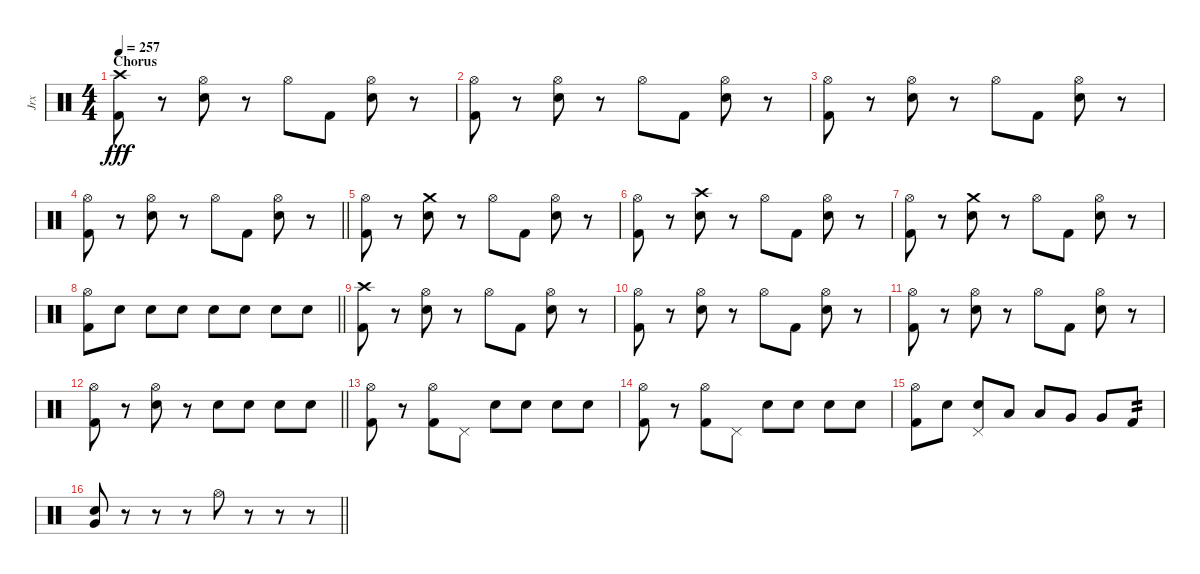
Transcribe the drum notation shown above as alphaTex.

\track ("Jrx" "Jrx") {instrument percussion}
\staff {score}
\articulation defaults
\ts (4 4)
\section ("" "Chorus")
\tempo 257
\clef neutral
\ks c
("Kick (hit) 2" "Crash high (hit)").8{dy fff} r.8 ("Hi-Hat (open)" "Snare (hit) 2").8 r.8 "Hi-Hat (open)".8 "Kick (hit) 2".8 ("Hi-Hat (open)" "Snare (hit) 2").8 r.8 |
("Hi-Hat (open)" "Kick (hit) 2").8 r.8 ("Hi-Hat (open)" "Snare (hit) 2").8 r.8 "Hi-Hat (open)".8 "Kick (hit) 2".8 ("Hi-Hat (open)" "Snare (hit) 2").8 r.8 |
("Hi-Hat (open)" "Kick (hit) 2").8 r.8 ("Hi-Hat (open)" "Snare (hit) 2").8 r.8 "Hi-Hat (open)".8 "Kick (hit) 2".8 ("Hi-Hat (open)" "Snare (hit) 2").8 r.8 |
\barLineRight lightlight
("Hi-Hat (open)" "Kick (hit) 2").8 r.8 ("Hi-Hat (open)" "Snare (hit) 2").8 r.8 "Hi-Hat (open)".8 "Kick (hit) 2".8 ("Hi-Hat (open)" "Snare (hit) 2").8 r.8 |
("Hi-Hat (open)" "Kick (hit) 2").8 r.8 ("Snare (hit) 2" "Crash medium (hit)").8 r.8 "Hi-Hat (open)".8 "Kick (hit) 2".8 ("Hi-Hat (open)" "Snare (hit) 2").8 r.8 |
("Hi-Hat (open)" "Kick (hit) 2").8 r.8 ("Snare (hit) 2" "Crash high (hit)").8 r.8 "Hi-Hat (open)".8 "Kick (hit) 2".8 ("Hi-Hat (open)" "Snare (hit) 2").8 r.8 |
("Hi-Hat (open)" "Kick (hit) 2").8 r.8 ("Snare (hit) 2" "Crash medium (hit)").8 r.8 "Hi-Hat (open)".8 "Kick (hit) 2".8 ("Hi-Hat (open)" "Snare (hit) 2").8 r.8 |
\barLineRight lightlight
("Hi-Hat (open)" "Kick (hit) 2").8 "Snare (hit) 2".8 "Snare (hit) 2".8 "Snare (hit) 2".8 "Snare (hit) 2".8 "Snare (hit) 2".8 "Snare (hit) 2".8 "Snare (hit) 2".8 |
("Kick (hit) 2" "Crash high (hit)").8 r.8 ("Hi-Hat (open)" "Snare (hit) 2").8 r.8 "Hi-Hat (open)".8 "Kick (hit) 2".8 ("Hi-Hat (open)" "Snare (hit) 2").8 r.8 |
("Hi-Hat (open)" "Kick (hit) 2").8 r.8 ("Hi-Hat (open)" "Snare (hit) 2").8 r.8 "Hi-Hat (open)".8 "Kick (hit) 2".8 ("Hi-Hat (open)" "Snare (hit) 2").8 r.8 |
("Hi-Hat (open)" "Kick (hit) 2").8 r.8 ("Hi-Hat (open)" "Snare (hit) 2").8 r.8 "Hi-Hat (open)".8 "Kick (hit) 2".8 ("Hi-Hat (open)" "Snare (hit) 2").8 r.8 |
\barLineRight lightlight
("Hi-Hat (open)" "Kick (hit) 2").8 r.8 ("Hi-Hat (open)" "Snare (hit) 2").8 r.8 "Snare (hit) 2".8 "Snare (hit) 2".8 "Snare (hit) 2".8 "Snare (hit) 2".8 |
("Hi-Hat (open)" "Kick (hit) 2").8 r.8 ("Hi-Hat (open)" "Kick (hit) 2").8 "Pedal Hi-Hat (hit)".8 "Snare (hit) 2".8 "Snare (hit) 2".8 "Snare (hit) 2".8 "Snare (hit) 2".8 |
("Hi-Hat (open)" "Kick (hit) 2").8 r.8 ("Hi-Hat (open)" "Kick (hit) 2").8 "Pedal Hi-Hat (hit)".8 "Snare (hit) 2".8 "Snare (hit) 2".8 "Snare (hit) 2".8 "Snare (hit) 2".8 |
("Hi-Hat (open)" "Kick (hit) 2").8 "Snare (hit) 2".8 ("Pedal Hi-Hat (hit)" "Snare (hit) 2").8 "Low Tom (hit)".8 "Low Tom (hit)".8 "Very Low Tom (hit)".8 "Very Low Tom (hit)".8 "Kick (hit) 2".8{tp 2} |
\barLineRight lightlight
("Snare (hit) 2" "Very Low Tom (hit)").8 r.8 r.8 r.8 "Hi-Hat (open)".8 r.8 r.8 r.8
